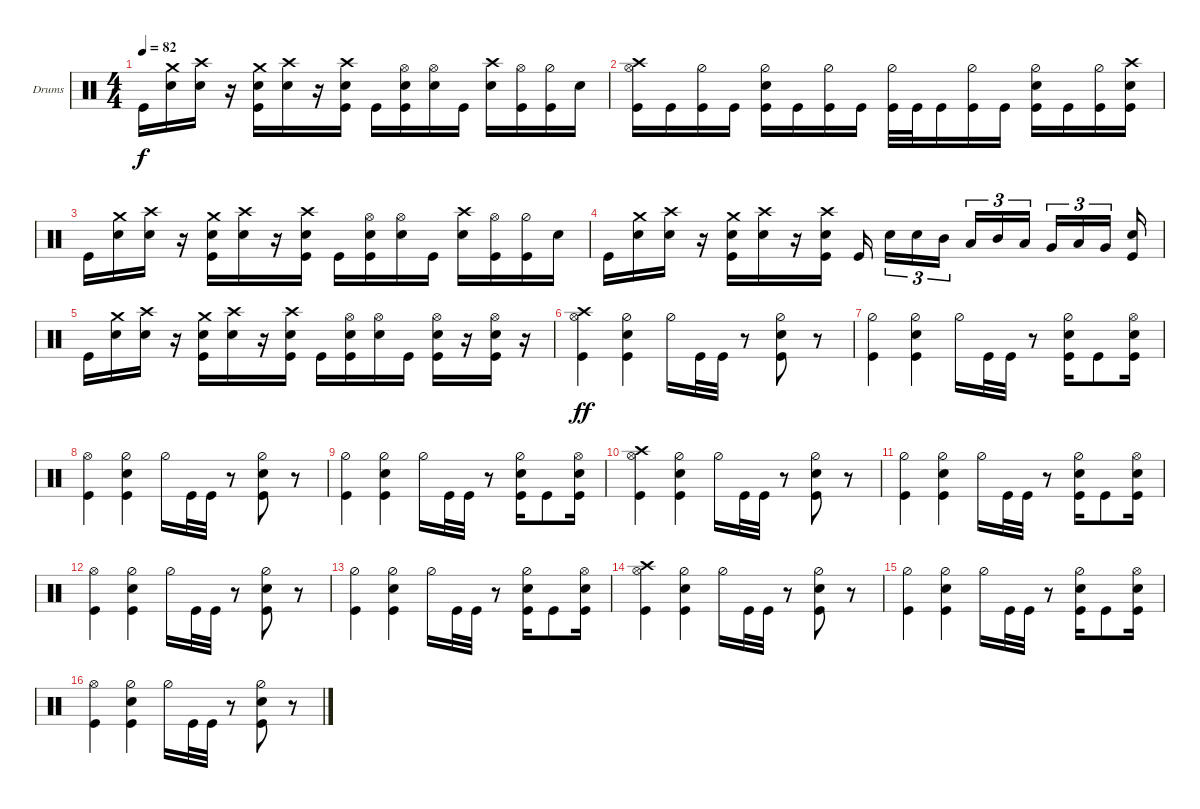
\bracketExtendMode groupsimilarinstruments
\firstSystemTrackNameOrientation horizontal
\otherSystemsTrackNameOrientation horizontal
\track ("Drumkit" "Drums") {instrument percussion}
\staff {score}
\articulation defaults
\ts (4 4)
\tempo 82
\clef neutral
\ks c "Kick (hit)".16{dy f}
("Snare (hit) 2" "Crash medium (hit)").16 ("Snare (hit) 2" "Crash high (hit)").16 r.16 ("Snare (hit) 2" "Crash medium (hit)" "Kick (hit)").16 ("Snare (hit) 2" "Crash high (hit)").16 r.16 ("Snare (hit) 2" "Crash high (hit)" "Kick (hit)").16 "Kick (hit)".16 ("Snare (hit) 2" "Hi-Hat (open)" "Kick (hit)").16 ("Snare (hit) 2" "Hi-Hat (open)").16 "Kick (hit)".16 ("Snare (hit) 2" "Crash high (hit)").16 ("Kick (hit)" "Hi-Hat (open)").16 ("Kick (hit)" "Hi-Hat (half)").16 "Snare (hit) 2".16 |
("Kick (hit)" "Hi-Hat (open)" "Crash high (hit)").16 "Kick (hit)".16 ("Kick (hit)" "Hi-Hat (half)").16 "Kick (hit)".16 ("Kick (hit)" "Snare (hit) 2" "Hi-Hat (half)").16 "Kick (hit)".16 ("Kick (hit)" "Hi-Hat (half)").16 "Kick (hit)".16 ("Kick (hit)" "Hi-Hat (half)").32 "Kick (hit)".32 "Kick (hit)".16 ("Kick (hit)" "Hi-Hat (half)").16 "Kick (hit)".16 ("Kick (hit)" "Snare (hit) 2" "Hi-Hat (half)").16 "Kick (hit)".16 ("Kick (hit)" "Hi-Hat (half)").16 ("Kick (hit)" "Snare (hit) 2" "Crash high (hit)").16 |
"Kick (hit)".16 ("Snare (hit) 2" "Crash medium (hit)").16 ("Snare (hit) 2" "Crash high (hit)").16 r.16 ("Snare (hit) 2" "Crash medium (hit)" "Kick (hit)").16 ("Snare (hit) 2" "Crash high (hit)").16 r.16 ("Snare (hit) 2" "Crash high (hit)" "Kick (hit)").16 "Kick (hit)".16 ("Snare (hit) 2" "Hi-Hat (open)" "Kick (hit)").16 ("Snare (hit) 2" "Hi-Hat (open)").16 "Kick (hit)".16 ("Snare (hit) 2" "Crash high (hit)").16 ("Kick (hit)" "Hi-Hat (open)").16 ("Kick (hit)" "Hi-Hat (half)").16 "Snare (hit) 2".16 |
"Kick (hit)".16 ("Snare (hit) 2" "Crash medium (hit)").16 ("Snare (hit) 2" "Crash high (hit)").16 r.16 ("Snare (hit) 2" "Crash medium (hit)" "Kick (hit)").16 ("Snare (hit) 2" "Crash high (hit)").16 r.16 ("Snare (hit) 2" "Crash high (hit)" "Kick (hit)").16 "Kick (hit)".16 "Snare (hit) 2".16{tu (3 2)} "Snare (hit) 2".16{tu (3 2)} "Mid Tom (hit)".16{tu (3 2)} "Low Tom (hit)".16{tu (3 2)} "Mid Tom (hit)".16{tu (3 2)} "Low Tom (hit)".16{tu (3 2)} "Very Low Tom (hit)".16{tu (3 2)} "Low Tom (hit)".16{tu (3 2)} "Very Low Tom (hit)".16{tu (3 2)} ("Kick (hit)" "Snare (hit) 2").16 |
"Kick (hit)".16 ("Snare (hit) 2" "Crash medium (hit)").16 ("Snare (hit) 2" "Crash high (hit)").16 r.16 ("Snare (hit) 2" "Crash medium (hit)" "Kick (hit)").16 ("Snare (hit) 2" "Crash high (hit)").16 r.16 ("Snare (hit) 2" "Crash high (hit)" "Kick (hit)").16 "Kick (hit)".16 ("Snare (hit) 2" "Hi-Hat (open)" "Kick (hit)").16 ("Snare (hit) 2" "Hi-Hat (open)").16 "Kick (hit)".16 ("Hi-Hat (open)" "Snare (hit) 2" "Kick (hit)").16 r.16 ("Hi-Hat (open)" "Snare (hit) 2" "Kick (hit)").16 r.16 |
("Kick (hit)" "Hi-Hat (open)" "Crash high (hit)").4{dy ff} ("Kick (hit)" "Snare (hit) 2" "Hi-Hat (half)").4 "Hi-Hat (half)".16 "Kick (hit)".32 "Kick (hit)".32 r.8 ("Kick (hit)" "Snare (hit) 2" "Hi-Hat (half)").8 r.8 |
("Kick (hit)" "Hi-Hat (half)").4 ("Kick (hit)" "Snare (hit) 2" "Hi-Hat (half)").4 "Hi-Hat (half)".16 "Kick (hit)".32 "Kick (hit)".32 r.8 ("Kick (hit)" "Snare (hit) 2" "Hi-Hat (half)").16 "Kick (hit)".8 ("Kick (hit)" "Snare (hit) 2" "Hi-Hat (open)").16 |
("Kick (hit)" "Hi-Hat (open)").4 ("Kick (hit)" "Snare (hit) 2" "Hi-Hat (half)").4 "Hi-Hat (half)".16 "Kick (hit)".32 "Kick (hit)".32 r.8 ("Kick (hit)" "Snare (hit) 2" "Hi-Hat (half)").8 r.8 |
("Kick (hit)" "Hi-Hat (half)").4 ("Kick (hit)" "Snare (hit) 2" "Hi-Hat (half)").4 "Hi-Hat (half)".16 "Kick (hit)".32 "Kick (hit)".32 r.8 ("Kick (hit)" "Snare (hit) 2" "Hi-Hat (half)").16 "Kick (hit)".8 ("Kick (hit)" "Snare (hit) 2" "Hi-Hat (open)").16 |
("Kick (hit)" "Hi-Hat (open)" "Crash high (hit)").4 ("Kick (hit)" "Snare (hit) 2" "Hi-Hat (half)").4 "Hi-Hat (half)".16 "Kick (hit)".32 "Kick (hit)".32 r.8 ("Kick (hit)" "Snare (hit) 2" "Hi-Hat (half)").8 r.8 |
("Kick (hit)" "Hi-Hat (half)").4 ("Kick (hit)" "Snare (hit) 2" "Hi-Hat (half)").4 "Hi-Hat (half)".16 "Kick (hit)".32 "Kick (hit)".32 r.8 ("Kick (hit)" "Snare (hit) 2" "Hi-Hat (half)").16 "Kick (hit)".8 ("Kick (hit)" "Snare (hit) 2" "Hi-Hat (open)").16 |
("Kick (hit)" "Hi-Hat (open)").4 ("Kick (hit)" "Snare (hit) 2" "Hi-Hat (half)").4 "Hi-Hat (half)".16 "Kick (hit)".32 "Kick (hit)".32 r.8 ("Kick (hit)" "Snare (hit) 2" "Hi-Hat (half)").8 r.8 |
("Kick (hit)" "Hi-Hat (half)").4 ("Kick (hit)" "Snare (hit) 2" "Hi-Hat (half)").4 "Hi-Hat (half)".16 "Kick (hit)".32 "Kick (hit)".32 r.8 ("Kick (hit)" "Snare (hit) 2" "Hi-Hat (half)").16 "Kick (hit)".8 ("Kick (hit)" "Snare (hit) 2" "Hi-Hat (open)").16 |
("Kick (hit)" "Hi-Hat (open)" "Crash high (hit)").4 ("Kick (hit)" "Snare (hit) 2" "Hi-Hat (half)").4 "Hi-Hat (half)".16 "Kick (hit)".32 "Kick (hit)".32 r.8 ("Kick (hit)" "Snare (hit) 2" "Hi-Hat (half)").8 r.8 |
("Kick (hit)" "Hi-Hat (half)").4 ("Kick (hit)" "Snare (hit) 2" "Hi-Hat (half)").4 "Hi-Hat (half)".16 "Kick (hit)".32 "Kick (hit)".32 r.8 ("Kick (hit)" "Snare (hit) 2" "Hi-Hat (half)").16 "Kick (hit)".8 ("Kick (hit)" "Snare (hit) 2" "Hi-Hat (open)").16 |
("Kick (hit)" "Hi-Hat (open)").4 ("Kick (hit)" "Snare (hit) 2" "Hi-Hat (half)").4 "Hi-Hat (half)".16 "Kick (hit)".32 "Kick (hit)".32 r.8 ("Kick (hit)" "Snare (hit) 2" "Hi-Hat (half)").8 r.8
